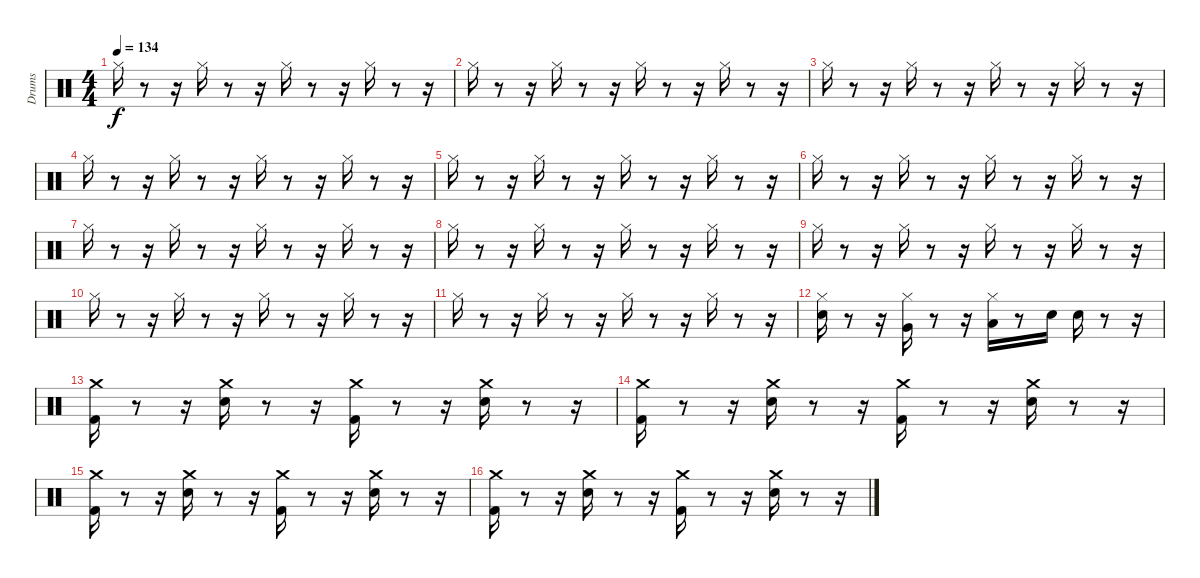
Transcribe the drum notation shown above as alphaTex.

\track ("Drums               " "Drums     ") {instrument percussion}
\staff {score}
\articulation defaults
\ts (4 4)
\tempo 134
\clef neutral
\ks c "Hi-Hat (closed)".16{dy f}
r.8 r.16 "Hi-Hat (closed)".16 r.8 r.16 "Hi-Hat (closed)".16 r.8 r.16 "Hi-Hat (closed)".16 r.8 r.16 |
"Hi-Hat (closed)".16 r.8 r.16 "Hi-Hat (closed)".16 r.8 r.16 "Hi-Hat (closed)".16 r.8 r.16 "Hi-Hat (closed)".16 r.8 r.16 |
"Hi-Hat (closed)".16 r.8 r.16 "Hi-Hat (closed)".16 r.8 r.16 "Hi-Hat (closed)".16 r.8 r.16 "Hi-Hat (closed)".16 r.8 r.16 |
"Hi-Hat (closed)".16 r.8 r.16 "Hi-Hat (closed)".16 r.8 r.16 "Hi-Hat (closed)".16 r.8 r.16 "Hi-Hat (closed)".16 r.8 r.16 |
"Hi-Hat (closed)".16 r.8 r.16 "Hi-Hat (closed)".16 r.8 r.16 "Hi-Hat (closed)".16 r.8 r.16 "Hi-Hat (closed)".16 r.8 r.16 |
"Hi-Hat (closed)".16 r.8 r.16 "Hi-Hat (closed)".16 r.8 r.16 "Hi-Hat (closed)".16 r.8 r.16 "Hi-Hat (closed)".16 r.8 r.16 |
"Hi-Hat (closed)".16 r.8 r.16 "Hi-Hat (closed)".16 r.8 r.16 "Hi-Hat (closed)".16 r.8 r.16 "Hi-Hat (closed)".16 r.8 r.16 |
"Hi-Hat (closed)".16 r.8 r.16 "Hi-Hat (closed)".16 r.8 r.16 "Hi-Hat (closed)".16 r.8 r.16 "Hi-Hat (closed)".16 r.8 r.16 |
"Hi-Hat (closed)".16 r.8 r.16 "Hi-Hat (closed)".16 r.8 r.16 "Hi-Hat (closed)".16 r.8 r.16 "Hi-Hat (closed)".16 r.8 r.16 |
"Hi-Hat (closed)".16 r.8 r.16 "Hi-Hat (closed)".16 r.8 r.16 "Hi-Hat (closed)".16 r.8 r.16 "Hi-Hat (closed)".16 r.8 r.16 |
"Hi-Hat (closed)".16 r.8 r.16 "Hi-Hat (closed)".16 r.8 r.16 "Hi-Hat (closed)".16 r.8 r.16 "Hi-Hat (closed)".16 r.8 r.16 |
("Hi-Hat (closed)" "Electric Snare (hit)").16 r.8 r.16 ("Hi-Hat (closed)" "Very Low Tom (hit)").16 r.8 r.16 ("Hi-Hat (closed)" "Low Tom (hit)").16 r.8 "Electric Snare (hit)".16 "Electric Snare (hit)".16 r.8 r.16 |
("Kick (hit) 2" "Crash medium (hit)").16 r.8 r.16 ("Snare (hit) 2" "Crash medium (hit)").16 r.8 r.16 ("Kick (hit) 2" "Crash medium (hit)").16 r.8 r.16 ("Snare (hit) 2" "Crash medium (hit)").16 r.8 r.16 |
("Kick (hit) 2" "Crash medium (hit)").16 r.8 r.16 ("Snare (hit) 2" "Crash medium (hit)").16 r.8 r.16 ("Kick (hit) 2" "Crash medium (hit)").16 r.8 r.16 ("Snare (hit) 2" "Crash medium (hit)").16 r.8 r.16 |
("Kick (hit) 2" "Crash medium (hit)").16 r.8 r.16 ("Snare (hit) 2" "Crash medium (hit)").16 r.8 r.16 ("Kick (hit) 2" "Crash medium (hit)").16 r.8 r.16 ("Snare (hit) 2" "Crash medium (hit)").16 r.8 r.16 |
("Kick (hit) 2" "Crash medium (hit)").16 r.8 r.16 ("Snare (hit) 2" "Crash medium (hit)").16 r.8 r.16 ("Kick (hit) 2" "Crash medium (hit)").16 r.8 r.16 ("Snare (hit) 2" "Crash medium (hit)").16 r.8 r.16
